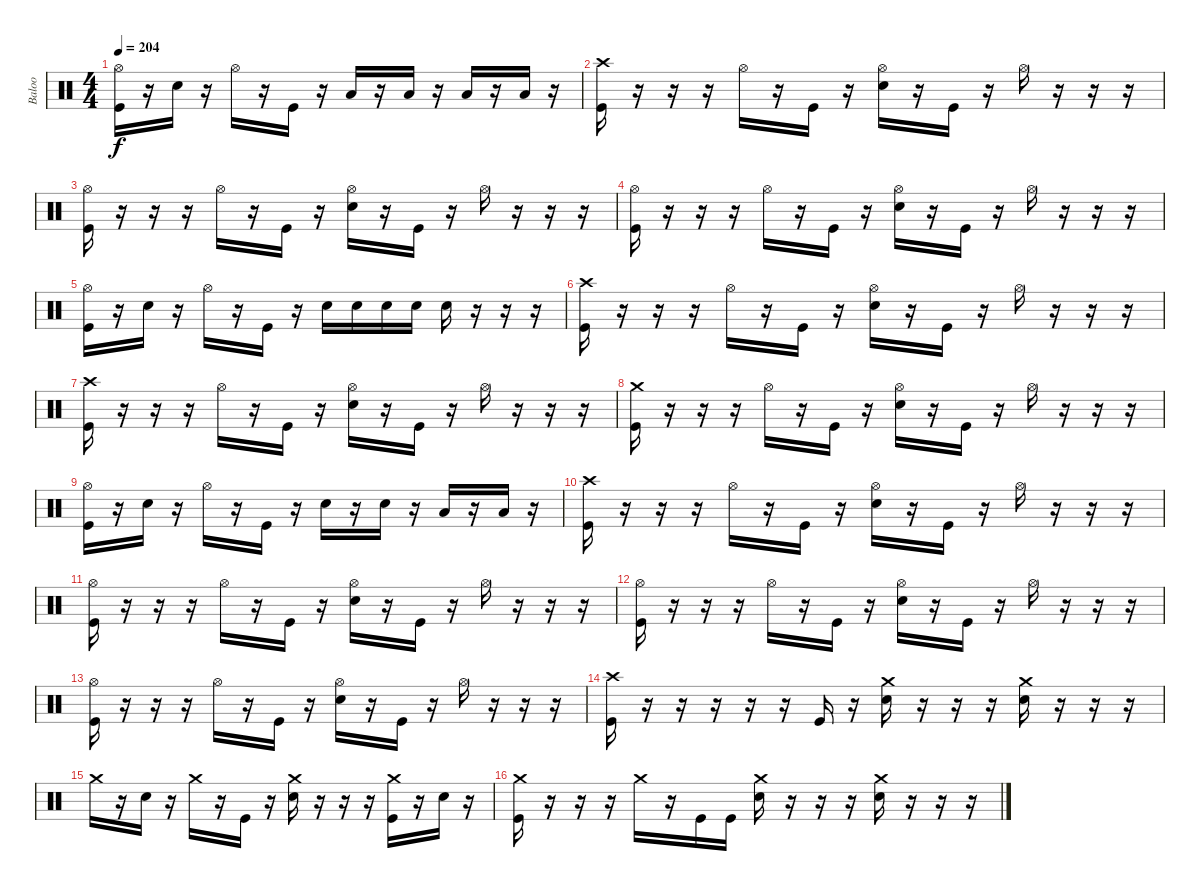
\track ("Baloo" "Baloo") {instrument percussion}
\staff {score}
\articulation defaults
\ts (4 4)
\tempo 204
\clef neutral
\ks c
("Hi-Hat (open)" "Kick (hit)").16{dy f} r.16 "Electric Snare (hit)".16 r.16 "Hi-Hat (open)".16 r.16 "Kick (hit)".16 r.16 "Low Tom (hit)".16 r.16 "Low Tom (hit)".16 r.16 "Low Tom (hit)".16 r.16 "Low Floor Tom (hit)".16 r.16 |
("Crash high (hit)" "Kick (hit)").16 r.16 r.16 r.16 "Hi-Hat (open)".16 r.16 "Kick (hit)".16 r.16 ("Hi-Hat (open)" "Electric Snare (hit)").16 r.16 "Kick (hit)".16 r.16 "Hi-Hat (open)".16 r.16 r.16 r.16 |
("Hi-Hat (open)" "Kick (hit)").16 r.16 r.16 r.16 "Hi-Hat (open)".16 r.16 "Kick (hit)".16 r.16 ("Hi-Hat (open)" "Electric Snare (hit)").16 r.16 "Kick (hit)".16 r.16 "Hi-Hat (open)".16 r.16 r.16 r.16 |
("Hi-Hat (open)" "Kick (hit)").16 r.16 r.16 r.16 "Hi-Hat (open)".16 r.16 "Kick (hit)".16 r.16 ("Hi-Hat (open)" "Electric Snare (hit)").16 r.16 "Kick (hit)".16 r.16 "Hi-Hat (open)".16 r.16 r.16 r.16 |
("Hi-Hat (open)" "Kick (hit)").16 r.16 "Electric Snare (hit)".16 r.16 "Hi-Hat (open)".16 r.16 "Kick (hit)".16 r.16 "Electric Snare (hit)".16 "Electric Snare (hit)".16 "Electric Snare (hit)".16 "Electric Snare (hit)".16 "Electric Snare (hit)".16 r.16 r.16 r.16 |
("Crash high (hit)" "Kick (hit)").16 r.16 r.16 r.16 "Hi-Hat (open)".16 r.16 "Kick (hit)".16 r.16 ("Hi-Hat (open)" "Electric Snare (hit)").16 r.16 "Kick (hit)".16 r.16 "Hi-Hat (open)".16 r.16 r.16 r.16 |
("Crash high (hit)" "Kick (hit)").16 r.16 r.16 r.16 "Hi-Hat (open)".16 r.16 "Kick (hit)".16 r.16 ("Hi-Hat (open)" "Electric Snare (hit)").16 r.16 "Kick (hit)".16 r.16 "Hi-Hat (open)".16 r.16 r.16 r.16 |
("Crash medium (hit)" "Kick (hit)").16 r.16 r.16 r.16 "Hi-Hat (open)".16 r.16 "Kick (hit)".16 r.16 ("Hi-Hat (open)" "Electric Snare (hit)").16 r.16 "Kick (hit)".16 r.16 "Hi-Hat (open)".16 r.16 r.16 r.16 |
("Hi-Hat (open)" "Kick (hit)").16 r.16 "Electric Snare (hit)".16 r.16 "Hi-Hat (open)".16 r.16 "Kick (hit)".16 r.16 "Electric Snare (hit)".16 r.16 "Electric Snare (hit)".16 r.16 "Low Tom (hit)".16 r.16 "Low Floor Tom (hit)".16 r.16 |
("Crash high (hit)" "Kick (hit)").16 r.16 r.16 r.16 "Hi-Hat (open)".16 r.16 "Kick (hit)".16 r.16 ("Hi-Hat (open)" "Electric Snare (hit)").16 r.16 "Kick (hit)".16 r.16 "Hi-Hat (open)".16 r.16 r.16 r.16 |
("Hi-Hat (open)" "Kick (hit)").16 r.16 r.16 r.16 "Hi-Hat (open)".16 r.16 "Kick (hit)".16 r.16 ("Hi-Hat (open)" "Electric Snare (hit)").16 r.16 "Kick (hit)".16 r.16 "Hi-Hat (open)".16 r.16 r.16 r.16 |
("Hi-Hat (open)" "Kick (hit)").16 r.16 r.16 r.16 "Hi-Hat (open)".16 r.16 "Kick (hit)".16 r.16 ("Hi-Hat (open)" "Electric Snare (hit)").16 r.16 "Kick (hit)".16 r.16 "Hi-Hat (open)".16 r.16 r.16 r.16 |
("Hi-Hat (open)" "Kick (hit)").16 r.16 r.16 r.16 "Hi-Hat (open)".16 r.16 "Kick (hit)".16 r.16 ("Hi-Hat (open)" "Electric Snare (hit)").16 r.16 "Kick (hit)".16 r.16 "Hi-Hat (open)".16 r.16 r.16 r.16 |
("Crash high (hit)" "Kick (hit)").16 r.16 r.16 r.16 r.16 r.16 "Kick (hit)".16 r.16 ("Crash medium (hit)" "Electric Snare (hit)").16 r.16 r.16 r.16 ("Crash medium (hit)" "Electric Snare (hit)").16 r.16 r.16 r.16 |
"Crash medium (hit)".16 r.16 "Electric Snare (hit)".16 r.16 "Crash medium (hit)".16 r.16 "Kick (hit)".16 r.16 ("Crash medium (hit)" "Electric Snare (hit)").16 r.16 r.16 r.16 ("Crash medium (hit)" "Kick (hit)").16 r.16 "Electric Snare (hit)".16 r.16 |
("Crash medium (hit)" "Kick (hit)").16 r.16 r.16 r.16 "Crash medium (hit)".16 r.16 "Kick (hit)".16 "Kick (hit)".16 ("Crash medium (hit)" "Electric Snare (hit)").16 r.16 r.16 r.16 ("Crash medium (hit)" "Electric Snare (hit)").16 r.16 r.16 r.16
